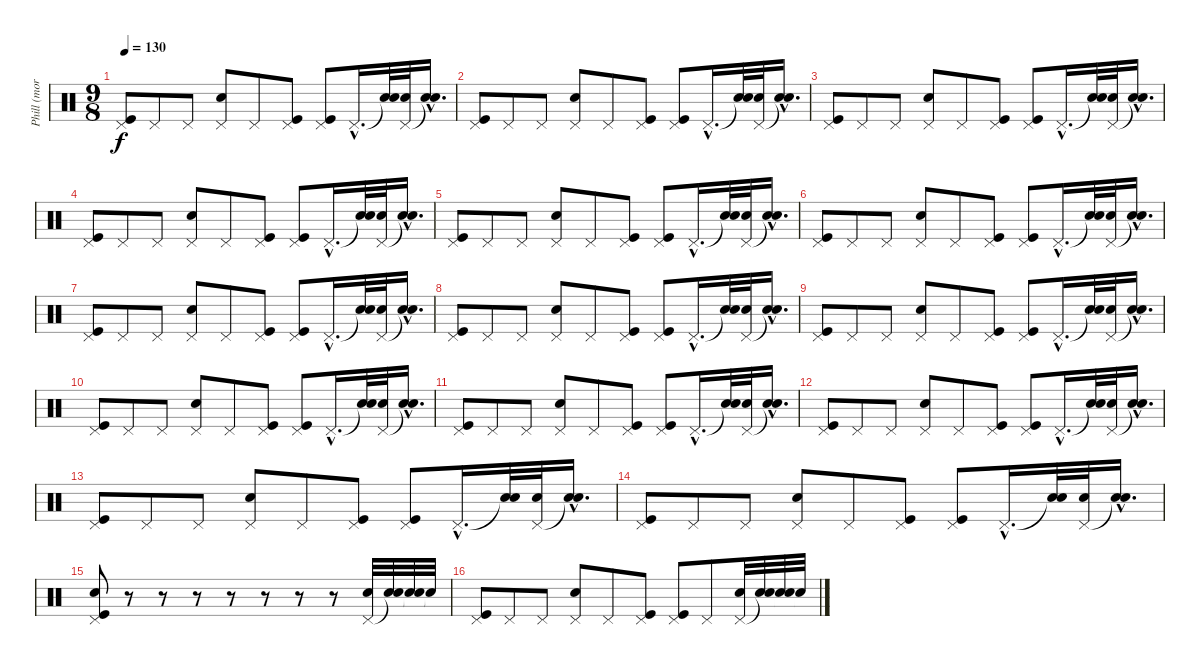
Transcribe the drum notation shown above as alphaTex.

\track ("Phill (mornig bell)" "Phill (mor") {instrument percussion}
\staff {score}
\articulation defaults
\ts (9 8)
\tempo 130
\clef neutral
\ks c
("Pedal Hi-Hat (hit)" "Kick (hit)").8{dy f} "Pedal Hi-Hat (hit)".8 "Pedal Hi-Hat (hit)".8 ("Pedal Hi-Hat (hit)" "Snare (hit) 2").8 "Pedal Hi-Hat (hit)".8 ("Pedal Hi-Hat (hit)" "Kick (hit)").8 ("Pedal Hi-Hat (hit)" "Kick (hit)").8 "Pedal Hi-Hat (hit)"{hac}.16{d} ("Snare (hit)"{t} "Snare (hit) 2").32 ("Pedal Hi-Hat (hit)" "Snare (hit) 2").32 ("Snare (hit)"{hac t} "Snare (hit) 2"{hac}).16{d} |
("Pedal Hi-Hat (hit)" "Kick (hit)").8 "Pedal Hi-Hat (hit)".8 "Pedal Hi-Hat (hit)".8 ("Pedal Hi-Hat (hit)" "Snare (hit) 2").8 "Pedal Hi-Hat (hit)".8 ("Pedal Hi-Hat (hit)" "Kick (hit)").8 ("Pedal Hi-Hat (hit)" "Kick (hit)").8 "Pedal Hi-Hat (hit)"{hac}.16{d} ("Snare (hit)"{t} "Snare (hit) 2").32 ("Pedal Hi-Hat (hit)" "Snare (hit) 2").32 ("Snare (hit)"{hac t} "Snare (hit) 2"{hac}).16{d} |
("Pedal Hi-Hat (hit)" "Kick (hit)").8 "Pedal Hi-Hat (hit)".8 "Pedal Hi-Hat (hit)".8 ("Pedal Hi-Hat (hit)" "Snare (hit) 2").8 "Pedal Hi-Hat (hit)".8 ("Pedal Hi-Hat (hit)" "Kick (hit)").8 ("Pedal Hi-Hat (hit)" "Kick (hit)").8 "Pedal Hi-Hat (hit)"{hac}.16{d} ("Snare (hit)"{t} "Snare (hit) 2").32 ("Pedal Hi-Hat (hit)" "Snare (hit) 2").32 ("Snare (hit)"{hac t} "Snare (hit) 2"{hac}).16{d} |
("Pedal Hi-Hat (hit)" "Kick (hit)").8 "Pedal Hi-Hat (hit)".8 "Pedal Hi-Hat (hit)".8 ("Pedal Hi-Hat (hit)" "Snare (hit) 2").8 "Pedal Hi-Hat (hit)".8 ("Pedal Hi-Hat (hit)" "Kick (hit)").8 ("Pedal Hi-Hat (hit)" "Kick (hit)").8 "Pedal Hi-Hat (hit)"{hac}.16{d} ("Snare (hit)"{t} "Snare (hit) 2").32 ("Pedal Hi-Hat (hit)" "Snare (hit) 2").32 ("Snare (hit)"{hac t} "Snare (hit) 2"{hac}).16{d} |
("Pedal Hi-Hat (hit)" "Kick (hit)").8 "Pedal Hi-Hat (hit)".8 "Pedal Hi-Hat (hit)".8 ("Pedal Hi-Hat (hit)" "Snare (hit) 2").8 "Pedal Hi-Hat (hit)".8 ("Pedal Hi-Hat (hit)" "Kick (hit)").8 ("Pedal Hi-Hat (hit)" "Kick (hit)").8 "Pedal Hi-Hat (hit)"{hac}.16{d} ("Snare (hit)"{t} "Snare (hit) 2").32 ("Pedal Hi-Hat (hit)" "Snare (hit) 2").32 ("Snare (hit)"{hac t} "Snare (hit) 2"{hac}).16{d} |
("Pedal Hi-Hat (hit)" "Kick (hit)").8 "Pedal Hi-Hat (hit)".8 "Pedal Hi-Hat (hit)".8 ("Pedal Hi-Hat (hit)" "Snare (hit) 2").8 "Pedal Hi-Hat (hit)".8 ("Pedal Hi-Hat (hit)" "Kick (hit)").8 ("Pedal Hi-Hat (hit)" "Kick (hit)").8 "Pedal Hi-Hat (hit)"{hac}.16{d} ("Snare (hit)"{t} "Snare (hit) 2").32 ("Pedal Hi-Hat (hit)" "Snare (hit) 2").32 ("Snare (hit)"{hac t} "Snare (hit) 2"{hac}).16{d} |
("Pedal Hi-Hat (hit)" "Kick (hit)").8 "Pedal Hi-Hat (hit)".8 "Pedal Hi-Hat (hit)".8 ("Pedal Hi-Hat (hit)" "Snare (hit) 2").8 "Pedal Hi-Hat (hit)".8 ("Pedal Hi-Hat (hit)" "Kick (hit)").8 ("Pedal Hi-Hat (hit)" "Kick (hit)").8 "Pedal Hi-Hat (hit)"{hac}.16{d} ("Snare (hit)"{t} "Snare (hit) 2").32 ("Pedal Hi-Hat (hit)" "Snare (hit) 2").32 ("Snare (hit)"{hac t} "Snare (hit) 2"{hac}).16{d} |
("Pedal Hi-Hat (hit)" "Kick (hit)").8 "Pedal Hi-Hat (hit)".8 "Pedal Hi-Hat (hit)".8 ("Pedal Hi-Hat (hit)" "Snare (hit) 2").8 "Pedal Hi-Hat (hit)".8 ("Pedal Hi-Hat (hit)" "Kick (hit)").8 ("Pedal Hi-Hat (hit)" "Kick (hit)").8 "Pedal Hi-Hat (hit)"{hac}.16{d} ("Snare (hit)"{t} "Snare (hit) 2").32 ("Pedal Hi-Hat (hit)" "Snare (hit) 2").32 ("Snare (hit)"{hac t} "Snare (hit) 2"{hac}).16{d} |
("Pedal Hi-Hat (hit)" "Kick (hit)").8 "Pedal Hi-Hat (hit)".8 "Pedal Hi-Hat (hit)".8 ("Pedal Hi-Hat (hit)" "Snare (hit) 2").8 "Pedal Hi-Hat (hit)".8 ("Pedal Hi-Hat (hit)" "Kick (hit)").8 ("Pedal Hi-Hat (hit)" "Kick (hit)").8 "Pedal Hi-Hat (hit)"{hac}.16{d} ("Snare (hit)"{t} "Snare (hit) 2").32 ("Pedal Hi-Hat (hit)" "Snare (hit) 2").32 ("Snare (hit)"{hac t} "Snare (hit) 2"{hac}).16{d} |
("Pedal Hi-Hat (hit)" "Kick (hit)").8 "Pedal Hi-Hat (hit)".8 "Pedal Hi-Hat (hit)".8 ("Pedal Hi-Hat (hit)" "Snare (hit) 2").8 "Pedal Hi-Hat (hit)".8 ("Pedal Hi-Hat (hit)" "Kick (hit)").8 ("Pedal Hi-Hat (hit)" "Kick (hit)").8 "Pedal Hi-Hat (hit)"{hac}.16{d} ("Snare (hit)"{t} "Snare (hit) 2").32 ("Pedal Hi-Hat (hit)" "Snare (hit) 2").32 ("Snare (hit)"{hac t} "Snare (hit) 2"{hac}).16{d} |
("Pedal Hi-Hat (hit)" "Kick (hit)").8 "Pedal Hi-Hat (hit)".8 "Pedal Hi-Hat (hit)".8 ("Pedal Hi-Hat (hit)" "Snare (hit) 2").8 "Pedal Hi-Hat (hit)".8 ("Pedal Hi-Hat (hit)" "Kick (hit)").8 ("Pedal Hi-Hat (hit)" "Kick (hit)").8 "Pedal Hi-Hat (hit)"{hac}.16{d} ("Snare (hit)"{t} "Snare (hit) 2").32 ("Pedal Hi-Hat (hit)" "Snare (hit) 2").32 ("Snare (hit)"{hac t} "Snare (hit) 2"{hac}).16{d} |
("Pedal Hi-Hat (hit)" "Kick (hit)").8 "Pedal Hi-Hat (hit)".8 "Pedal Hi-Hat (hit)".8 ("Pedal Hi-Hat (hit)" "Snare (hit) 2").8 "Pedal Hi-Hat (hit)".8 ("Pedal Hi-Hat (hit)" "Kick (hit)").8 ("Pedal Hi-Hat (hit)" "Kick (hit)").8 "Pedal Hi-Hat (hit)"{hac}.16{d} ("Snare (hit)"{t} "Snare (hit) 2").32 ("Pedal Hi-Hat (hit)" "Snare (hit) 2").32 ("Snare (hit)"{hac t} "Snare (hit) 2"{hac}).16{d} |
("Pedal Hi-Hat (hit)" "Kick (hit)").8 "Pedal Hi-Hat (hit)".8 "Pedal Hi-Hat (hit)".8 ("Pedal Hi-Hat (hit)" "Snare (hit) 2").8 "Pedal Hi-Hat (hit)".8 ("Pedal Hi-Hat (hit)" "Kick (hit)").8 ("Pedal Hi-Hat (hit)" "Kick (hit)").8 "Pedal Hi-Hat (hit)"{hac}.16{d} ("Snare (hit)"{t} "Snare (hit) 2").32 ("Pedal Hi-Hat (hit)" "Snare (hit) 2").32 ("Snare (hit)"{hac t} "Snare (hit) 2"{hac}).16{d} |
("Pedal Hi-Hat (hit)" "Kick (hit)").8 "Pedal Hi-Hat (hit)".8 "Pedal Hi-Hat (hit)".8 ("Pedal Hi-Hat (hit)" "Snare (hit) 2").8 "Pedal Hi-Hat (hit)".8 ("Pedal Hi-Hat (hit)" "Kick (hit)").8 ("Pedal Hi-Hat (hit)" "Kick (hit)").8 "Pedal Hi-Hat (hit)"{hac}.16{d} ("Snare (hit)"{t} "Snare (hit) 2").32 ("Pedal Hi-Hat (hit)" "Snare (hit) 2").32 ("Snare (hit)"{hac t} "Snare (hit) 2"{hac}).16{d} |
("Pedal Hi-Hat (hit)" "Snare (hit) 2" "Kick (hit)").8 r.8 r.8 r.8 r.8 r.8 r.8 r.8 ("Pedal Hi-Hat (hit)" "Snare (hit) 2").32 ("Snare (hit)"{t} "Snare (hit) 2").32 ("Snare (hit)"{t} "Snare (hit) 2").32 "Snare (hit)"{t}.32 |
("Pedal Hi-Hat (hit)" "Kick (hit)").8 "Pedal Hi-Hat (hit)".8 "Pedal Hi-Hat (hit)".8 ("Pedal Hi-Hat (hit)" "Snare (hit) 2").8 "Pedal Hi-Hat (hit)".8 ("Pedal Hi-Hat (hit)" "Kick (hit)").8 ("Pedal Hi-Hat (hit)" "Kick (hit)").8 "Pedal Hi-Hat (hit)".8 ("Pedal Hi-Hat (hit)" "Snare (hit) 2").32 ("Snare (hit)"{t} "Snare (hit) 2").32 ("Snare (hit)"{t} "Snare (hit) 2").32 "Snare (hit)"{t}.32
